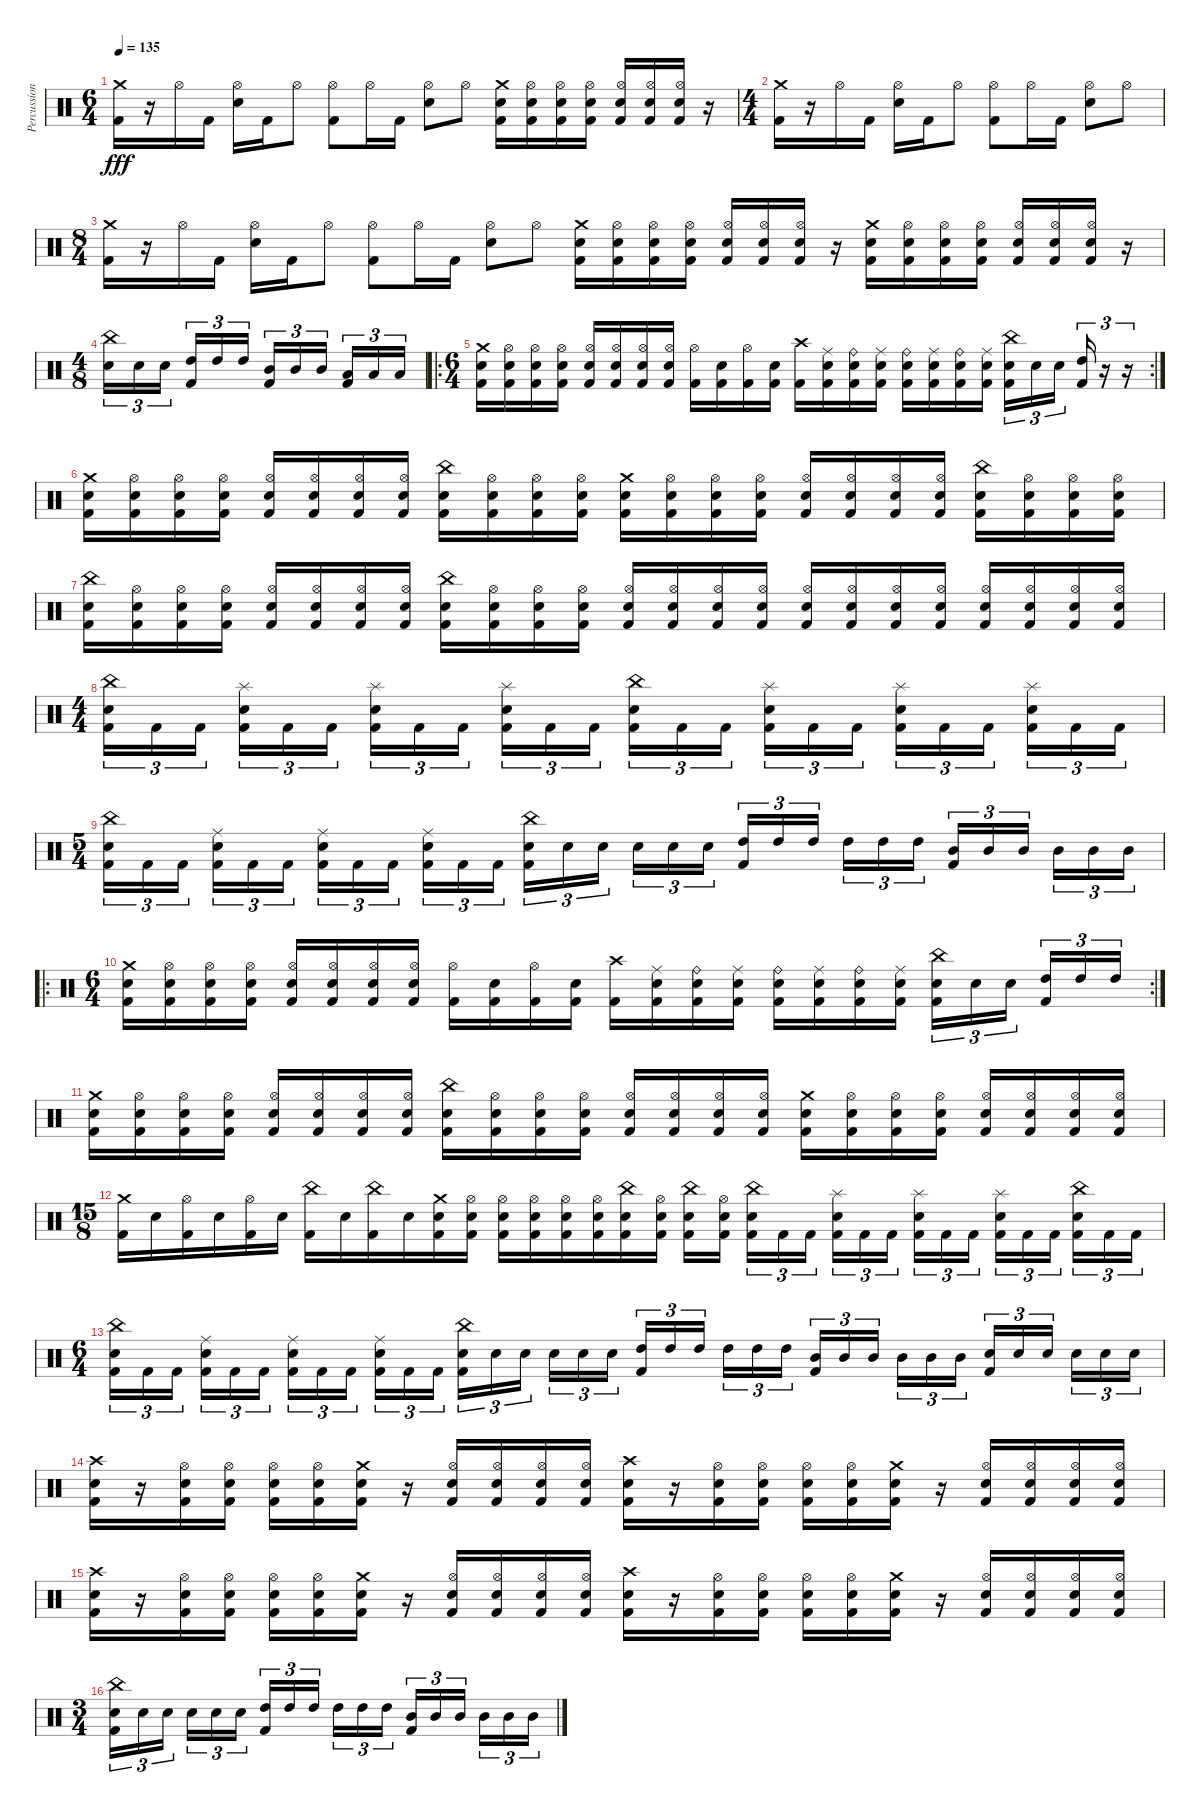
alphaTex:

\track ("Percussion" "Percussion") {instrument percussion}
\staff {score}
\articulation defaults
\ts (6 4)
\tempo 135
\clef neutral
\ks c
("Crash medium (hit)" "Kick (hit) 2").16{dy fff} r.16 "Hi-Hat (open)".16 "Kick (hit) 2".16 ("Hi-Hat (open)" "Electric Snare (hit)").16 "Kick (hit) 2".16 "Hi-Hat (open)".8 ("Hi-Hat (open)" "Kick (hit) 2").8 "Hi-Hat (open)".16 "Kick (hit) 2".16 ("Hi-Hat (open)" "Electric Snare (hit)").8 "Hi-Hat (open)".8 ("Crash medium (hit)" "Kick (hit) 2" "Electric Snare (hit)").16 ("Hi-Hat (open)" "Kick (hit) 2" "Electric Snare (hit)").16 ("Hi-Hat (open)" "Kick (hit) 2" "Electric Snare (hit)").16 ("Hi-Hat (open)" "Kick (hit) 2" "Electric Snare (hit)").16 ("Hi-Hat (open)" "Kick (hit) 2" "Electric Snare (hit)").16 ("Hi-Hat (open)" "Kick (hit) 2" "Electric Snare (hit)").16 ("Hi-Hat (open)" "Kick (hit) 2" "Electric Snare (hit)").16 r.16 |
\ts (4 4)
("Crash medium (hit)" "Kick (hit) 2").16 r.16 "Hi-Hat (open)".16 "Kick (hit) 2".16 ("Hi-Hat (open)" "Electric Snare (hit)").16 "Kick (hit) 2".16 "Hi-Hat (open)".8 ("Hi-Hat (open)" "Kick (hit) 2").8 "Hi-Hat (open)".16 "Kick (hit) 2".16 ("Hi-Hat (open)" "Electric Snare (hit)").8 "Hi-Hat (open)".8 |
\ts (8 4)
("Crash medium (hit)" "Kick (hit) 2").16 r.16 "Hi-Hat (open)".16 "Kick (hit) 2".16 ("Hi-Hat (open)" "Electric Snare (hit)").16 "Kick (hit) 2".16 "Hi-Hat (open)".8 ("Hi-Hat (open)" "Kick (hit) 2").8 "Hi-Hat (open)".16 "Kick (hit) 2".16 ("Hi-Hat (open)" "Electric Snare (hit)").8 "Hi-Hat (open)".8 ("Crash medium (hit)" "Kick (hit) 2" "Electric Snare (hit)").16 ("Hi-Hat (open)" "Kick (hit) 2" "Electric Snare (hit)").16 ("Hi-Hat (open)" "Kick (hit) 2" "Electric Snare (hit)").16 ("Hi-Hat (open)" "Kick (hit) 2" "Electric Snare (hit)").16 ("Hi-Hat (open)" "Kick (hit) 2" "Electric Snare (hit)").16 ("Hi-Hat (open)" "Kick (hit) 2" "Electric Snare (hit)").16 ("Hi-Hat (open)" "Kick (hit) 2" "Electric Snare (hit)").16 r.16 ("Crash medium (hit)" "Kick (hit) 2" "Electric Snare (hit)").16 ("Hi-Hat (open)" "Kick (hit) 2" "Electric Snare (hit)").16 ("Hi-Hat (open)" "Kick (hit) 2" "Electric Snare (hit)").16 ("Hi-Hat (open)" "Kick (hit) 2" "Electric Snare (hit)").16 ("Hi-Hat (open)" "Kick (hit) 2" "Electric Snare (hit)").16 ("Hi-Hat (open)" "Kick (hit) 2" "Electric Snare (hit)").16 ("Hi-Hat (open)" "Kick (hit) 2" "Electric Snare (hit)").16 r.16 |
\ts (4 8)
("Electric Snare (hit)" "China (hit)").16{tu (3 2)} "Electric Snare (hit)".16{tu (3 2)} "Electric Snare (hit)".16{tu (3 2)} ("High Tom (hit)" "Kick (hit) 2").16{tu (3 2)} "High Tom (hit)".16{tu (3 2)} "High Tom (hit)".16{tu (3 2)} ("Mid Tom (hit)" "Kick (hit) 2").16{tu (3 2)} "Mid Tom (hit)".16{tu (3 2)} "Mid Tom (hit)".16{tu (3 2)} ("Low Tom (hit)" "Kick (hit) 2").16{tu (3 2)} "Low Tom (hit)".16{tu (3 2)} "Low Tom (hit)".16{tu (3 2)} |
\ro
\rc 2
\ts (6 4)
("Crash medium (hit)" "Kick (hit) 2" "Electric Snare (hit)").16 ("Hi-Hat (open)" "Kick (hit) 2" "Electric Snare (hit)").16 ("Hi-Hat (open)" "Kick (hit) 2" "Electric Snare (hit)").16 ("Hi-Hat (open)" "Kick (hit) 2" "Electric Snare (hit)").16 ("Hi-Hat (open)" "Kick (hit) 2" "Electric Snare (hit)").16 ("Hi-Hat (open)" "Kick (hit) 2" "Electric Snare (hit)").16 ("Hi-Hat (open)" "Kick (hit) 2" "Electric Snare (hit)").16 ("Hi-Hat (open)" "Kick (hit) 2" "Electric Snare (hit)").16 ("Hi-Hat (open)" "Kick (hit) 2").16 ("Kick (hit) 2" "Electric Snare (hit)").16 ("Hi-Hat (open)" "Kick (hit) 2").16 ("Kick (hit) 2" "Electric Snare (hit)").16 ("Crash high (hit)" "Kick (hit) 2").16 ("Ride (middle)" "Kick (hit) 2" "Electric Snare (hit)").16 ("Ride (bell)" "Kick (hit) 2" "Electric Snare (hit)").16 ("Ride (middle)" "Kick (hit) 2" "Electric Snare (hit)").16 ("Ride (bell)" "Kick (hit) 2" "Electric Snare (hit)").16 ("Ride (middle)" "Kick (hit) 2" "Electric Snare (hit)").16 ("Ride (bell)" "Kick (hit) 2" "Electric Snare (hit)").16 ("Ride (middle)" "Kick (hit) 2" "Electric Snare (hit)").16{beam splitsecondary} ("China (hit)" "Electric Snare (hit)" "Kick (hit) 2").16{tu (3 2)} "Electric Snare (hit)".16{tu (3 2)} "Electric Snare (hit)".16{tu (3 2) beam splitsecondary} ("High Tom (hit)" "Kick (hit) 2").16{tu (3 2)} r.16{tu (3 2)} r.16{tu (3 2)} |
("Crash medium (hit)" "Kick (hit) 2" "Electric Snare (hit)").16 ("Hi-Hat (open)" "Kick (hit) 2" "Electric Snare (hit)").16 ("Hi-Hat (open)" "Kick (hit) 2" "Electric Snare (hit)").16 ("Hi-Hat (open)" "Kick (hit) 2" "Electric Snare (hit)").16 ("Hi-Hat (open)" "Kick (hit) 2" "Electric Snare (hit)").16 ("Hi-Hat (open)" "Kick (hit) 2" "Electric Snare (hit)").16 ("Hi-Hat (open)" "Kick (hit) 2" "Electric Snare (hit)").16 ("Hi-Hat (open)" "Kick (hit) 2" "Electric Snare (hit)").16 ("China (hit)" "Kick (hit) 2" "Electric Snare (hit)").16 ("Hi-Hat (open)" "Kick (hit) 2" "Electric Snare (hit)").16 ("Hi-Hat (open)" "Kick (hit) 2" "Electric Snare (hit)").16 ("Hi-Hat (open)" "Kick (hit) 2" "Electric Snare (hit)").16 ("Crash medium (hit)" "Kick (hit) 2" "Electric Snare (hit)").16 ("Hi-Hat (open)" "Kick (hit) 2" "Electric Snare (hit)").16 ("Hi-Hat (open)" "Kick (hit) 2" "Electric Snare (hit)").16 ("Hi-Hat (open)" "Kick (hit) 2" "Electric Snare (hit)").16 ("Hi-Hat (open)" "Kick (hit) 2" "Electric Snare (hit)").16 ("Hi-Hat (open)" "Kick (hit) 2" "Electric Snare (hit)").16 ("Hi-Hat (open)" "Kick (hit) 2" "Electric Snare (hit)").16 ("Hi-Hat (open)" "Kick (hit) 2" "Electric Snare (hit)").16 ("China (hit)" "Kick (hit) 2" "Electric Snare (hit)").16 ("Hi-Hat (open)" "Kick (hit) 2" "Electric Snare (hit)").16 ("Hi-Hat (open)" "Kick (hit) 2" "Electric Snare (hit)").16 ("Hi-Hat (open)" "Kick (hit) 2" "Electric Snare (hit)").16 |
("China (hit)" "Kick (hit) 2" "Electric Snare (hit)").16 ("Hi-Hat (open)" "Kick (hit) 2" "Electric Snare (hit)").16 ("Hi-Hat (open)" "Kick (hit) 2" "Electric Snare (hit)").16 ("Hi-Hat (open)" "Kick (hit) 2" "Electric Snare (hit)").16 ("Hi-Hat (open)" "Kick (hit) 2" "Electric Snare (hit)").16 ("Hi-Hat (open)" "Kick (hit) 2" "Electric Snare (hit)").16 ("Hi-Hat (open)" "Kick (hit) 2" "Electric Snare (hit)").16 ("Hi-Hat (open)" "Kick (hit) 2" "Electric Snare (hit)").16 ("China (hit)" "Kick (hit) 2" "Electric Snare (hit)").16 ("Hi-Hat (open)" "Kick (hit) 2" "Electric Snare (hit)").16 ("Hi-Hat (open)" "Kick (hit) 2" "Electric Snare (hit)").16 ("Hi-Hat (open)" "Kick (hit) 2" "Electric Snare (hit)").16 ("Hi-Hat (open)" "Kick (hit) 2" "Electric Snare (hit)").16 ("Hi-Hat (open)" "Kick (hit) 2" "Electric Snare (hit)").16 ("Hi-Hat (open)" "Kick (hit) 2" "Electric Snare (hit)").16 ("Hi-Hat (open)" "Kick (hit) 2" "Electric Snare (hit)").16 ("Hi-Hat (open)" "Kick (hit) 2" "Electric Snare (hit)").16 ("Hi-Hat (open)" "Kick (hit) 2" "Electric Snare (hit)").16 ("Hi-Hat (open)" "Kick (hit) 2" "Electric Snare (hit)").16 ("Hi-Hat (open)" "Kick (hit) 2" "Electric Snare (hit)").16 ("Hi-Hat (open)" "Kick (hit) 2" "Electric Snare (hit)").16 ("Hi-Hat (open)" "Kick (hit) 2" "Electric Snare (hit)").16 ("Hi-Hat (open)" "Kick (hit) 2" "Electric Snare (hit)").16 ("Hi-Hat (open)" "Kick (hit) 2" "Electric Snare (hit)").16 |
\ts (4 4)
("China (hit)" "Electric Snare (hit)" "Kick (hit) 2").16{tu (3 2)} "Kick (hit) 2".16{tu (3 2)} "Kick (hit) 2".16{tu (3 2) beam splitsecondary} ("Splash (hit)" "Electric Snare (hit)" "Kick (hit) 2").16{tu (3 2)} "Kick (hit) 2".16{tu (3 2)} "Kick (hit) 2".16{tu (3 2)} ("Splash (hit)" "Electric Snare (hit)" "Kick (hit) 2").16{tu (3 2)} "Kick (hit) 2".16{tu (3 2)} "Kick (hit) 2".16{tu (3 2) beam splitsecondary} ("Splash (hit)" "Electric Snare (hit)" "Kick (hit) 2").16{tu (3 2)} "Kick (hit) 2".16{tu (3 2)} "Kick (hit) 2".16{tu (3 2)} ("China (hit)" "Electric Snare (hit)" "Kick (hit) 2").16{tu (3 2)} "Kick (hit) 2".16{tu (3 2)} "Kick (hit) 2".16{tu (3 2) beam splitsecondary} ("Splash (hit)" "Electric Snare (hit)" "Kick (hit) 2").16{tu (3 2)} "Kick (hit) 2".16{tu (3 2)} "Kick (hit) 2".16{tu (3 2)} ("Splash (hit)" "Electric Snare (hit)" "Kick (hit) 2").16{tu (3 2)} "Kick (hit) 2".16{tu (3 2)} "Kick (hit) 2".16{tu (3 2) beam splitsecondary} ("Splash (hit)" "Electric Snare (hit)" "Kick (hit) 2").16{tu (3 2)} "Kick (hit) 2".16{tu (3 2)} "Kick (hit) 2".16{tu (3 2)} |
\ts (5 4)
("China (hit)" "Electric Snare (hit)" "Kick (hit) 2").16{tu (3 2)} "Kick (hit) 2".16{tu (3 2)} "Kick (hit) 2".16{tu (3 2) beam splitsecondary} ("Ride (middle)" "Electric Snare (hit)" "Kick (hit) 2").16{tu (3 2)} "Kick (hit) 2".16{tu (3 2)} "Kick (hit) 2".16{tu (3 2)} ("Ride (middle)" "Electric Snare (hit)" "Kick (hit) 2").16{tu (3 2)} "Kick (hit) 2".16{tu (3 2)} "Kick (hit) 2".16{tu (3 2) beam splitsecondary} ("Ride (middle)" "Electric Snare (hit)" "Kick (hit) 2").16{tu (3 2)} "Kick (hit) 2".16{tu (3 2)} "Kick (hit) 2".16{tu (3 2)} ("China (hit)" "Kick (hit) 2" "Electric Snare (hit)").16{tu (3 2)} "Electric Snare (hit)".16{tu (3 2)} "Electric Snare (hit)".16{tu (3 2) beam splitsecondary} "Electric Snare (hit)".16{tu (3 2)} "Electric Snare (hit)".16{tu (3 2)} "Electric Snare (hit)".16{tu (3 2)} ("Kick (hit) 2" "High Tom (hit)").16{tu (3 2)} "High Tom (hit)".16{tu (3 2)} "High Tom (hit)".16{tu (3 2) beam splitsecondary} "High Tom (hit)".16{tu (3 2)} "High Tom (hit)".16{tu (3 2)} "High Tom (hit)".16{tu (3 2)} ("Kick (hit) 2" "Mid Tom (hit)").16{tu (3 2)} "Mid Tom (hit)".16{tu (3 2)} "Mid Tom (hit)".16{tu (3 2) beam splitsecondary} "Mid Tom (hit)".16{tu (3 2)} "Mid Tom (hit)".16{tu (3 2)} "Mid Tom (hit)".16{tu (3 2)} |
\ro
\rc 2
\ts (6 4)
("Crash medium (hit)" "Kick (hit) 2" "Electric Snare (hit)").16 ("Hi-Hat (open)" "Kick (hit) 2" "Electric Snare (hit)").16 ("Hi-Hat (open)" "Kick (hit) 2" "Electric Snare (hit)").16 ("Hi-Hat (open)" "Kick (hit) 2" "Electric Snare (hit)").16 ("Hi-Hat (open)" "Kick (hit) 2" "Electric Snare (hit)").16 ("Hi-Hat (open)" "Kick (hit) 2" "Electric Snare (hit)").16 ("Hi-Hat (open)" "Kick (hit) 2" "Electric Snare (hit)").16 ("Hi-Hat (open)" "Kick (hit) 2" "Electric Snare (hit)").16 ("Hi-Hat (open)" "Kick (hit) 2").16 ("Kick (hit) 2" "Electric Snare (hit)").16 ("Hi-Hat (open)" "Kick (hit) 2").16 ("Kick (hit) 2" "Electric Snare (hit)").16 ("Crash high (hit)" "Kick (hit) 2").16 ("Ride (middle)" "Kick (hit) 2" "Electric Snare (hit)").16 ("Ride (bell)" "Kick (hit) 2" "Electric Snare (hit)").16 ("Ride (middle)" "Kick (hit) 2" "Electric Snare (hit)").16 ("Ride (bell)" "Kick (hit) 2" "Electric Snare (hit)").16 ("Ride (middle)" "Kick (hit) 2" "Electric Snare (hit)").16 ("Ride (bell)" "Kick (hit) 2" "Electric Snare (hit)").16 ("Ride (middle)" "Kick (hit) 2" "Electric Snare (hit)").16{beam splitsecondary} ("China (hit)" "Electric Snare (hit)" "Kick (hit) 2").16{tu (3 2)} "Electric Snare (hit)".16{tu (3 2)} "Electric Snare (hit)".16{tu (3 2) beam splitsecondary} ("High Tom (hit)" "Kick (hit) 2").16{tu (3 2)} "High Tom (hit)".16{tu (3 2)} "High Tom (hit)".16{tu (3 2)} |
("Crash medium (hit)" "Kick (hit) 2" "Electric Snare (hit)").16 ("Hi-Hat (open)" "Kick (hit) 2" "Electric Snare (hit)").16 ("Hi-Hat (open)" "Kick (hit) 2" "Electric Snare (hit)").16 ("Hi-Hat (open)" "Kick (hit) 2" "Electric Snare (hit)").16 ("Hi-Hat (open)" "Kick (hit) 2" "Electric Snare (hit)").16 ("Hi-Hat (open)" "Kick (hit) 2" "Electric Snare (hit)").16 ("Hi-Hat (open)" "Kick (hit) 2" "Electric Snare (hit)").16 ("Hi-Hat (open)" "Kick (hit) 2" "Electric Snare (hit)").16 ("China (hit)" "Kick (hit) 2" "Electric Snare (hit)").16 ("Hi-Hat (open)" "Kick (hit) 2" "Electric Snare (hit)").16 ("Hi-Hat (open)" "Kick (hit) 2" "Electric Snare (hit)").16 ("Hi-Hat (open)" "Kick (hit) 2" "Electric Snare (hit)").16 ("Hi-Hat (open)" "Kick (hit) 2" "Electric Snare (hit)").16 ("Hi-Hat (open)" "Kick (hit) 2" "Electric Snare (hit)").16 ("Hi-Hat (open)" "Kick (hit) 2" "Electric Snare (hit)").16 ("Hi-Hat (open)" "Kick (hit) 2" "Electric Snare (hit)").16 ("Crash medium (hit)" "Kick (hit) 2" "Electric Snare (hit)").16 ("Hi-Hat (open)" "Kick (hit) 2" "Electric Snare (hit)").16 ("Hi-Hat (open)" "Kick (hit) 2" "Electric Snare (hit)").16 ("Hi-Hat (open)" "Kick (hit) 2" "Electric Snare (hit)").16 ("Hi-Hat (open)" "Kick (hit) 2" "Electric Snare (hit)").16 ("Hi-Hat (open)" "Kick (hit) 2" "Electric Snare (hit)").16 ("Hi-Hat (open)" "Kick (hit) 2" "Electric Snare (hit)").16 ("Hi-Hat (open)" "Kick (hit) 2" "Electric Snare (hit)").16 |
\ts (15 8)
("Crash medium (hit)" "Kick (hit) 2").16 "Electric Snare (hit)".16 ("Hi-Hat (open)" "Kick (hit) 2").16 "Electric Snare (hit)".16 ("Hi-Hat (open)" "Kick (hit) 2").16 "Electric Snare (hit)".16 ("China (hit)" "Kick (hit) 2").16 "Electric Snare (hit)".16 ("China (hit)" "Kick (hit) 2").16 "Electric Snare (hit)".16 ("Crash medium (hit)" "Kick (hit) 2" "Electric Snare (hit)").16 ("Hi-Hat (open)" "Kick (hit) 2" "Electric Snare (hit)").16 ("Hi-Hat (open)" "Kick (hit) 2" "Electric Snare (hit)").16 ("Hi-Hat (open)" "Kick (hit) 2" "Electric Snare (hit)").16 ("Hi-Hat (open)" "Kick (hit) 2" "Electric Snare (hit)").16 ("Hi-Hat (open)" "Kick (hit) 2" "Electric Snare (hit)").16 ("China (hit)" "Kick (hit) 2" "Electric Snare (hit)").16 ("Hi-Hat (open)" "Kick (hit) 2" "Electric Snare (hit)").16 ("China (hit)" "Kick (hit) 2" "Electric Snare (hit)").16 ("Hi-Hat (open)" "Kick (hit) 2" "Electric Snare (hit)").16{beam splitsecondary} ("China (hit)" "Electric Snare (hit)" "Kick (hit) 2").16{tu (3 2)} "Kick (hit) 2".16{tu (3 2)} "Kick (hit) 2".16{tu (3 2) beam splitsecondary} ("Splash (hit)" "Electric Snare (hit)" "Kick (hit) 2").16{tu (3 2)} "Kick (hit) 2".16{tu (3 2)} "Kick (hit) 2".16{tu (3 2)} ("Splash (hit)" "Electric Snare (hit)" "Kick (hit) 2").16{tu (3 2)} "Kick (hit) 2".16{tu (3 2)} "Kick (hit) 2".16{tu (3 2) beam splitsecondary} ("Splash (hit)" "Electric Snare (hit)" "Kick (hit) 2").16{tu (3 2)} "Kick (hit) 2".16{tu (3 2)} "Kick (hit) 2".16{tu (3 2) beam splitsecondary} ("China (hit)" "Electric Snare (hit)" "Kick (hit) 2").16{tu (3 2)} "Kick (hit) 2".16{tu (3 2)} "Kick (hit) 2".16{tu (3 2)} |
\ts (6 4)
("China (hit)" "Electric Snare (hit)" "Kick (hit) 2").16{tu (3 2)} "Kick (hit) 2".16{tu (3 2)} "Kick (hit) 2".16{tu (3 2) beam splitsecondary} ("Ride (middle)" "Electric Snare (hit)" "Kick (hit) 2").16{tu (3 2)} "Kick (hit) 2".16{tu (3 2)} "Kick (hit) 2".16{tu (3 2) beam splitsecondary} ("Ride (middle)" "Electric Snare (hit)" "Kick (hit) 2").16{tu (3 2)} "Kick (hit) 2".16{tu (3 2)} "Kick (hit) 2".16{tu (3 2) beam splitsecondary} ("Ride (middle)" "Electric Snare (hit)" "Kick (hit) 2").16{tu (3 2)} "Kick (hit) 2".16{tu (3 2)} "Kick (hit) 2".16{tu (3 2) beam splitsecondary} ("China (hit)" "Kick (hit) 2" "Electric Snare (hit)").16{tu (3 2)} "Electric Snare (hit)".16{tu (3 2)} "Electric Snare (hit)".16{tu (3 2) beam splitsecondary} "Electric Snare (hit)".16{tu (3 2)} "Electric Snare (hit)".16{tu (3 2)} "Electric Snare (hit)".16{tu (3 2)} ("Kick (hit) 2" "High Tom (hit)").16{tu (3 2)} "High Tom (hit)".16{tu (3 2)} "High Tom (hit)".16{tu (3 2) beam splitsecondary} "High Tom (hit)".16{tu (3 2)} "High Tom (hit)".16{tu (3 2)} "High Tom (hit)".16{tu (3 2) beam splitsecondary} ("Kick (hit) 2" "Mid Tom (hit)").16{tu (3 2)} "Mid Tom (hit)".16{tu (3 2)} "Mid Tom (hit)".16{tu (3 2) beam splitsecondary} "Mid Tom (hit)".16{tu (3 2)} "Mid Tom (hit)".16{tu (3 2)} "Mid Tom (hit)".16{tu (3 2) beam splitsecondary} ("Kick (hit) 2" "Electric Snare (hit)").16{tu (3 2)} "Electric Snare (hit)".16{tu (3 2)} "Electric Snare (hit)".16{tu (3 2) beam splitsecondary} "Electric Snare (hit)".16{tu (3 2)} "Electric Snare (hit)".16{tu (3 2)} "Electric Snare (hit)".16{tu (3 2)} |
("Crash high (hit)" "Kick (hit) 2" "Electric Snare (hit)").16 r.16 ("Hi-Hat (open)" "Kick (hit) 2" "Electric Snare (hit)").16 ("Hi-Hat (open)" "Kick (hit) 2" "Electric Snare (hit)").16 ("Hi-Hat (open)" "Kick (hit) 2" "Electric Snare (hit)").16 ("Hi-Hat (open)" "Kick (hit) 2" "Electric Snare (hit)").16 ("Crash medium (hit)" "Kick (hit) 2" "Electric Snare (hit)").16 r.16 ("Hi-Hat (open)" "Kick (hit) 2" "Electric Snare (hit)").16 ("Hi-Hat (open)" "Kick (hit) 2" "Electric Snare (hit)").16 ("Hi-Hat (open)" "Kick (hit) 2" "Electric Snare (hit)").16 ("Hi-Hat (open)" "Kick (hit) 2" "Electric Snare (hit)").16 ("Crash high (hit)" "Kick (hit) 2" "Electric Snare (hit)").16 r.16 ("Hi-Hat (open)" "Kick (hit) 2" "Electric Snare (hit)").16 ("Hi-Hat (open)" "Kick (hit) 2" "Electric Snare (hit)").16 ("Hi-Hat (open)" "Kick (hit) 2" "Electric Snare (hit)").16 ("Hi-Hat (open)" "Kick (hit) 2" "Electric Snare (hit)").16 ("Crash medium (hit)" "Kick (hit) 2" "Electric Snare (hit)").16 r.16 ("Hi-Hat (open)" "Kick (hit) 2" "Electric Snare (hit)").16 ("Hi-Hat (open)" "Kick (hit) 2" "Electric Snare (hit)").16 ("Hi-Hat (open)" "Kick (hit) 2" "Electric Snare (hit)").16 ("Hi-Hat (open)" "Kick (hit) 2" "Electric Snare (hit)").16 |
("Crash high (hit)" "Kick (hit) 2" "Electric Snare (hit)").16 r.16 ("Hi-Hat (open)" "Kick (hit) 2" "Electric Snare (hit)").16 ("Hi-Hat (open)" "Kick (hit) 2" "Electric Snare (hit)").16 ("Hi-Hat (open)" "Kick (hit) 2" "Electric Snare (hit)").16 ("Hi-Hat (open)" "Kick (hit) 2" "Electric Snare (hit)").16 ("Crash medium (hit)" "Kick (hit) 2" "Electric Snare (hit)").16 r.16 ("Hi-Hat (open)" "Kick (hit) 2" "Electric Snare (hit)").16 ("Hi-Hat (open)" "Kick (hit) 2" "Electric Snare (hit)").16 ("Hi-Hat (open)" "Kick (hit) 2" "Electric Snare (hit)").16 ("Hi-Hat (open)" "Kick (hit) 2" "Electric Snare (hit)").16 ("Crash high (hit)" "Kick (hit) 2" "Electric Snare (hit)").16 r.16 ("Hi-Hat (open)" "Kick (hit) 2" "Electric Snare (hit)").16 ("Hi-Hat (open)" "Kick (hit) 2" "Electric Snare (hit)").16 ("Hi-Hat (open)" "Kick (hit) 2" "Electric Snare (hit)").16 ("Hi-Hat (open)" "Kick (hit) 2" "Electric Snare (hit)").16 ("Crash medium (hit)" "Kick (hit) 2" "Electric Snare (hit)").16 r.16 ("Hi-Hat (open)" "Kick (hit) 2" "Electric Snare (hit)").16 ("Hi-Hat (open)" "Kick (hit) 2" "Electric Snare (hit)").16 ("Hi-Hat (open)" "Kick (hit) 2" "Electric Snare (hit)").16 ("Hi-Hat (open)" "Kick (hit) 2" "Electric Snare (hit)").16 |
\ts (3 4)
("China (hit)" "Kick (hit) 2" "Electric Snare (hit)").16{tu (3 2)} "Electric Snare (hit)".16{tu (3 2)} "Electric Snare (hit)".16{tu (3 2) beam splitsecondary} "Electric Snare (hit)".16{tu (3 2)} "Electric Snare (hit)".16{tu (3 2)} "Electric Snare (hit)".16{tu (3 2)} ("Kick (hit) 2" "High Tom (hit)").16{tu (3 2)} "High Tom (hit)".16{tu (3 2)} "High Tom (hit)".16{tu (3 2) beam splitsecondary} "High Tom (hit)".16{tu (3 2)} "High Tom (hit)".16{tu (3 2)} "High Tom (hit)".16{tu (3 2)} ("Kick (hit) 2" "Mid Tom (hit)").16{tu (3 2)} "Mid Tom (hit)".16{tu (3 2)} "Mid Tom (hit)".16{tu (3 2) beam splitsecondary} "Mid Tom (hit)".16{tu (3 2)} "Mid Tom (hit)".16{tu (3 2)} "Mid Tom (hit)".16{tu (3 2)}
